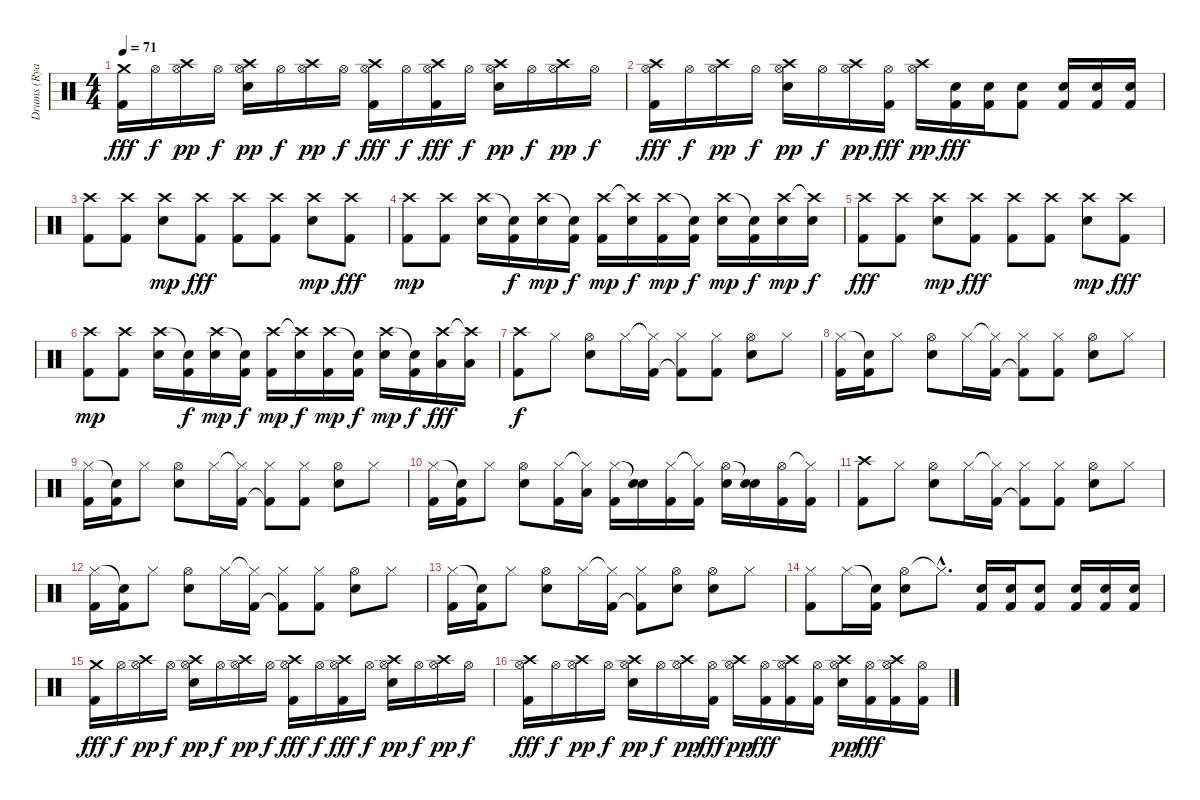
\track ("Drums (Ryan \"Nik\" Vikedal)" "Drums (Rya") {instrument percussion}
\staff {score}
\articulation defaults
\ts (4 4)
\tempo 71
\clef neutral
\ks c
("Crash medium (hit)" "Kick (hit) 2").16{dy fff} "Hi-Hat (open)".16{dy f} ("Crash high (hit)" "Hi-Hat (open)").16{dy pp} "Hi-Hat (open)".16{dy f} ("Crash high (hit)" "Hi-Hat (open)" "Electric Snare (hit)").16{dy pp} "Hi-Hat (open)".16{dy f} ("Crash high (hit)" "Hi-Hat (open)").16{dy pp} "Hi-Hat (open)".16{dy f} ("Crash high (hit)" "Hi-Hat (open)" "Kick (hit) 2").16{dy fff} "Hi-Hat (open)".16{dy f} ("Crash high (hit)" "Hi-Hat (open)" "Kick (hit) 2").16{dy fff} "Hi-Hat (open)".16{dy f} ("Crash high (hit)" "Hi-Hat (open)" "Electric Snare (hit)").16{dy pp} "Hi-Hat (open)".16{dy f} ("Crash high (hit)" "Hi-Hat (open)").16{dy pp} "Hi-Hat (open)".16{dy f} |
("Crash high (hit)" "Hi-Hat (open)" "Kick (hit) 2").16{dy fff} "Hi-Hat (open)".16{dy f} ("Crash high (hit)" "Hi-Hat (open)").16{dy pp} "Hi-Hat (open)".16{dy f} ("Crash high (hit)" "Hi-Hat (open)" "Electric Snare (hit)").16{dy pp} "Hi-Hat (open)".16{dy f} ("Crash high (hit)" "Hi-Hat (open)").16{dy pp} ("Hi-Hat (open)" "Kick (hit) 2").16{dy fff} ("Crash high (hit)" "Hi-Hat (open)").16{dy pp} ("Electric Snare (hit)" "Kick (hit) 2").16{dy fff} ("Electric Snare (hit)" "Kick (hit) 2").16 ("Electric Snare (hit)" "Kick (hit) 2").8 ("Electric Snare (hit)" "Kick (hit) 2").16 ("Electric Snare (hit)" "Kick (hit) 2").16 ("Electric Snare (hit)" "Kick (hit) 2").16 |
("Crash high (hit)" "Kick (hit) 2").8 ("Crash high (hit)" "Kick (hit) 2").8 ("Crash high (hit)" "Electric Snare (hit)").8{dy mp} ("Crash high (hit)" "Kick (hit) 2").8{dy fff} ("Crash high (hit)" "Kick (hit) 2").8 ("Crash high (hit)" "Kick (hit) 2").8 ("Crash high (hit)" "Electric Snare (hit)").8{dy mp} ("Crash high (hit)" "Kick (hit) 2").8{dy fff} |
("Crash high (hit)" "Kick (hit) 2").8{dy mp} ("Crash high (hit)" "Kick (hit) 2").8 ("Crash high (hit)" "Electric Snare (hit)").16 ("Snare (hit)"{t} "Kick (hit) 2").16{dy f} ("Crash high (hit)" "Electric Snare (hit)").16{dy mp} ("Snare (hit)"{t} "Kick (hit) 2").16{dy f} ("Crash high (hit)" "Kick (hit) 2").16{dy mp} ("Crash high (hit)"{t} "Electric Snare (hit)").16{dy f} ("Crash high (hit)" "Kick (hit) 2").16{dy mp} ("Snare (hit)"{t} "Kick (hit) 2").16{dy f} ("Crash high (hit)" "Electric Snare (hit)").16{dy mp} ("Snare (hit)"{t} "Kick (hit) 2").16{dy f} ("Crash high (hit)" "Electric Snare (hit)").16{dy mp} ("Crash high (hit)"{t} "Electric Snare (hit)").16{dy f} |
("Crash high (hit)" "Kick (hit) 2").8{dy fff} ("Crash high (hit)" "Kick (hit) 2").8 ("Crash high (hit)" "Electric Snare (hit)").8{dy mp} ("Crash high (hit)" "Kick (hit) 2").8{dy fff} ("Crash high (hit)" "Kick (hit) 2").8 ("Crash high (hit)" "Kick (hit) 2").8 ("Crash high (hit)" "Electric Snare (hit)").8{dy mp} ("Crash high (hit)" "Kick (hit) 2").8{dy fff} |
("Crash high (hit)" "Kick (hit) 2").8{dy mp} ("Crash high (hit)" "Kick (hit) 2").8 ("Crash high (hit)" "Electric Snare (hit)").16 ("Snare (hit)"{t} "Kick (hit) 2").16{dy f} ("Crash high (hit)" "Electric Snare (hit)").16{dy mp} ("Snare (hit)"{t} "Kick (hit) 2").16{dy f} ("Crash high (hit)" "Kick (hit) 2").16{dy mp} ("Crash high (hit)"{t} "Electric Snare (hit)").16{dy f} ("Crash high (hit)" "Kick (hit) 2").16{dy mp} ("Snare (hit)"{t} "Kick (hit) 2").16{dy f} ("Crash high (hit)" "Electric Snare (hit)").16{dy mp} ("Snare (hit)"{t} "Kick (hit) 2").16{dy f} ("Crash high (hit)" "Low Tom (hit)").16{dy fff} ("Crash high (hit)"{t} "Low Tom (hit)").16 |
("Crash high (hit)" "Kick (hit) 2").8{dy f} "Hi-Hat (closed)".8 ("Hi-Hat (open)" "Electric Snare (hit)").8 "Hi-Hat (closed)".16 ("Hi-Hat (closed)"{t} "Kick (hit) 2").16 ("Hi-Hat (closed)" "Kick (hit) 2"{t}).8 ("Hi-Hat (closed)" "Kick (hit) 2").8 ("Hi-Hat (open)" "Electric Snare (hit)").8 "Hi-Hat (closed)".8 |
("Hi-Hat (closed)" "Kick (hit) 2").16 ("Snare (hit)"{t} "Kick (hit) 2").16 "Hi-Hat (closed)".8 ("Hi-Hat (open)" "Electric Snare (hit)").8 "Hi-Hat (closed)".16 ("Hi-Hat (closed)"{t} "Kick (hit) 2").16 ("Hi-Hat (closed)" "Kick (hit) 2"{t}).8 ("Hi-Hat (closed)" "Kick (hit) 2").8 ("Hi-Hat (open)" "Electric Snare (hit)").8 "Hi-Hat (closed)".8 |
("Hi-Hat (closed)" "Kick (hit) 2").16 ("Snare (hit)"{t} "Kick (hit) 2").16 "Hi-Hat (closed)".8 ("Hi-Hat (open)" "Electric Snare (hit)").8 "Hi-Hat (closed)".16 ("Hi-Hat (closed)"{t} "Kick (hit) 2").16 ("Hi-Hat (closed)" "Kick (hit) 2"{t}).8 ("Hi-Hat (closed)" "Kick (hit) 2").8 ("Hi-Hat (open)" "Electric Snare (hit)").8 "Hi-Hat (closed)".8 |
("Hi-Hat (closed)" "Kick (hit) 2").16 ("Snare (hit)"{t} "Kick (hit) 2").16 "Hi-Hat (closed)".8 ("Hi-Hat (open)" "Electric Snare (hit)").8 ("Hi-Hat (closed)" "Kick (hit) 2").16 ("Hi-Hat (closed)"{t} "Low Tom (hit)").16 ("Hi-Hat (closed)" "Kick (hit) 2").16 ("Snare (hit)"{t} "Electric Snare (hit)").16 ("Hi-Hat (closed)" "Kick (hit) 2").16 ("Hi-Hat (closed)"{t} "Kick (hit) 2").16 ("Hi-Hat (open)" "Electric Snare (hit)").16 ("Snare (hit)"{t} "Electric Snare (hit)").16 ("Hi-Hat (open)" "Kick (hit) 2").16 ("Hi-Hat (closed)"{t} "Kick (hit) 2").16 |
("Crash high (hit)" "Kick (hit) 2").8 "Hi-Hat (closed)".8 ("Hi-Hat (open)" "Electric Snare (hit)").8 "Hi-Hat (closed)".16 ("Hi-Hat (closed)"{t} "Kick (hit) 2").16 ("Hi-Hat (closed)" "Kick (hit) 2"{t}).8 ("Hi-Hat (closed)" "Kick (hit) 2").8 ("Hi-Hat (open)" "Electric Snare (hit)").8 "Hi-Hat (closed)".8 |
("Hi-Hat (closed)" "Kick (hit) 2").16 ("Snare (hit)"{t} "Kick (hit) 2").16 "Hi-Hat (closed)".8 ("Hi-Hat (open)" "Electric Snare (hit)").8 "Hi-Hat (closed)".16 ("Hi-Hat (closed)"{t} "Kick (hit) 2").16 ("Hi-Hat (closed)" "Kick (hit) 2"{t}).8 ("Hi-Hat (closed)" "Kick (hit) 2").8 ("Hi-Hat (open)" "Electric Snare (hit)").8 "Hi-Hat (closed)".8 |
("Hi-Hat (closed)" "Kick (hit) 2").16 ("Snare (hit)"{t} "Kick (hit) 2").16 "Hi-Hat (closed)".8 ("Hi-Hat (open)" "Electric Snare (hit)").8 "Hi-Hat (closed)".16 ("Hi-Hat (closed)"{t} "Kick (hit) 2").16 ("Hi-Hat (closed)" "Kick (hit) 2"{t}).8 ("Hi-Hat (open)" "Electric Snare (hit)").8 ("Hi-Hat (open)" "Electric Snare (hit)").8 "Hi-Hat (closed)".8 |
("Hi-Hat (closed)" "Kick (hit) 2").8 "Hi-Hat (closed)".16 ("Snare (hit)"{t} "Kick (hit) 2").16 ("Hi-Hat (open)" "Electric Snare (hit)").8 "Hi-Hat (closed)"{hac t}.8{d} ("Electric Snare (hit)" "Kick (hit) 2").16 ("Electric Snare (hit)" "Kick (hit) 2").16 ("Electric Snare (hit)" "Kick (hit) 2").8 ("Electric Snare (hit)" "Kick (hit) 2").16 ("Electric Snare (hit)" "Kick (hit) 2").16 ("Electric Snare (hit)" "Kick (hit) 2").16 |
("Crash medium (hit)" "Kick (hit) 2").16{dy fff} "Hi-Hat (open)".16{dy f} ("Crash high (hit)" "Hi-Hat (open)").16{dy pp} "Hi-Hat (open)".16{dy f} ("Crash high (hit)" "Hi-Hat (open)" "Electric Snare (hit)").16{dy pp} "Hi-Hat (open)".16{dy f} ("Crash high (hit)" "Hi-Hat (open)").16{dy pp} "Hi-Hat (open)".16{dy f} ("Crash high (hit)" "Hi-Hat (open)" "Kick (hit) 2").16{dy fff} "Hi-Hat (open)".16{dy f} ("Crash high (hit)" "Hi-Hat (open)" "Kick (hit) 2").16{dy fff} "Hi-Hat (open)".16{dy f} ("Crash high (hit)" "Hi-Hat (open)" "Electric Snare (hit)").16{dy pp} "Hi-Hat (open)".16{dy f} ("Crash high (hit)" "Hi-Hat (open)").16{dy pp} "Hi-Hat (open)".16{dy f} |
("Crash high (hit)" "Hi-Hat (open)" "Kick (hit) 2").16{dy fff} "Hi-Hat (open)".16{dy f} ("Crash high (hit)" "Hi-Hat (open)").16{dy pp} "Hi-Hat (open)".16{dy f} ("Crash high (hit)" "Hi-Hat (open)" "Electric Snare (hit)").16{dy pp} "Hi-Hat (open)".16{dy f} ("Crash high (hit)" "Hi-Hat (open)").16{dy pp} ("Hi-Hat (open)" "Kick (hit) 2").16{dy fff} ("Crash high (hit)" "Hi-Hat (open)").16{dy pp} ("Hi-Hat (open)" "Kick (hit) 2").16{dy fff} ("Crash high (hit)" "Hi-Hat (open)" "Kick (hit) 2").16 ("Hi-Hat (open)" "Kick (hit) 2").16 ("Crash high (hit)" "Hi-Hat (open)" "Electric Snare (hit)").16{dy pp} ("Hi-Hat (open)" "Kick (hit) 2").16{dy fff} ("Crash high (hit)" "Hi-Hat (open)" "Kick (hit) 2").16 ("Hi-Hat (open)" "Kick (hit) 2").16
